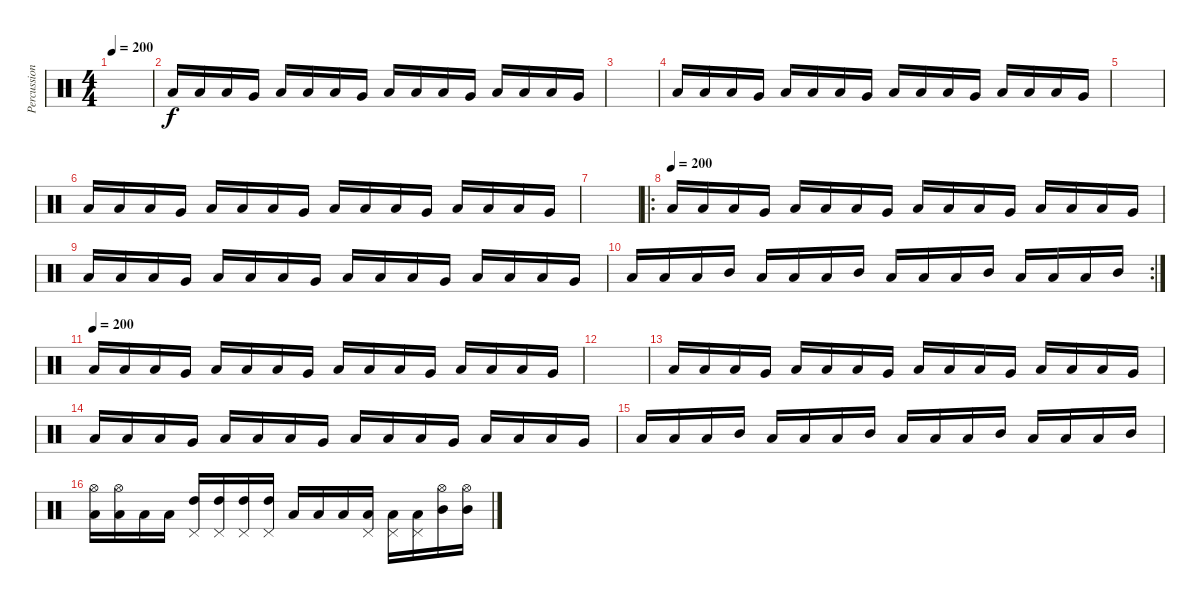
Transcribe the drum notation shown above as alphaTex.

\track ("Percussions" "Percussion") {instrument percussion}
\staff {score}
\articulation defaults
\ts (4 4)
\tempo 200
\clef neutral
\ks c
|
"Low Floor Tom (hit)".16 "Low Floor Tom (hit)".16 "Low Floor Tom (hit)".16 "Very Low Tom (hit)".16 "Low Floor Tom (hit)".16 "Low Floor Tom (hit)".16 "Low Floor Tom (hit)".16 "Very Low Tom (hit)".16 "Low Floor Tom (hit)".16 "Low Floor Tom (hit)".16 "Low Floor Tom (hit)".16 "Very Low Tom (hit)".16 "Low Floor Tom (hit)".16 "Low Floor Tom (hit)".16 "Low Floor Tom (hit)".16 "Very Low Tom (hit)".16 |
|
"Low Floor Tom (hit)".16 "Low Floor Tom (hit)".16 "Low Floor Tom (hit)".16 "Very Low Tom (hit)".16 "Low Floor Tom (hit)".16 "Low Floor Tom (hit)".16 "Low Floor Tom (hit)".16 "Very Low Tom (hit)".16 "Low Floor Tom (hit)".16 "Low Floor Tom (hit)".16 "Low Floor Tom (hit)".16 "Very Low Tom (hit)".16 "Low Floor Tom (hit)".16 "Low Floor Tom (hit)".16 "Low Floor Tom (hit)".16 "Very Low Tom (hit)".16 |
|
"Low Floor Tom (hit)".16 "Low Floor Tom (hit)".16 "Low Floor Tom (hit)".16 "Very Low Tom (hit)".16 "Low Floor Tom (hit)".16 "Low Floor Tom (hit)".16 "Low Floor Tom (hit)".16 "Very Low Tom (hit)".16 "Low Floor Tom (hit)".16 "Low Floor Tom (hit)".16 "Low Floor Tom (hit)".16 "Very Low Tom (hit)".16 "Low Floor Tom (hit)".16 "Low Floor Tom (hit)".16 "Low Floor Tom (hit)".16 "Very Low Tom (hit)".16 |
|
\ro
\tempo (200)
"Low Floor Tom (hit)".16 "Low Floor Tom (hit)".16 "Low Floor Tom (hit)".16 "Very Low Tom (hit)".16 "Low Floor Tom (hit)".16 "Low Floor Tom (hit)".16 "Low Floor Tom (hit)".16 "Very Low Tom (hit)".16 "Low Floor Tom (hit)".16 "Low Floor Tom (hit)".16 "Low Floor Tom (hit)".16 "Very Low Tom (hit)".16 "Low Floor Tom (hit)".16 "Low Floor Tom (hit)".16 "Low Floor Tom (hit)".16 "Very Low Tom (hit)".16 |
"Low Floor Tom (hit)".16 "Low Floor Tom (hit)".16 "Low Floor Tom (hit)".16 "Very Low Tom (hit)".16 "Low Floor Tom (hit)".16 "Low Floor Tom (hit)".16 "Low Floor Tom (hit)".16 "Very Low Tom (hit)".16 "Low Floor Tom (hit)".16 "Low Floor Tom (hit)".16 "Low Floor Tom (hit)".16 "Very Low Tom (hit)".16 "Low Floor Tom (hit)".16 "Low Floor Tom (hit)".16 "Low Floor Tom (hit)".16 "Very Low Tom (hit)".16 |
\rc 2 "Low Tom (hit)".16 "Low Tom (hit)".16 "Low Tom (hit)".16 "Mid Tom (hit)".16 "Low Tom (hit)".16 "Low Tom (hit)".16 "Low Tom (hit)".16 "Mid Tom (hit)".16 "Low Tom (hit)".16 "Low Tom (hit)".16 "Low Tom (hit)".16 "Mid Tom (hit)".16 "Low Tom (hit)".16 "Low Tom (hit)".16 "Low Tom (hit)".16 "Mid Tom (hit)".16
|
\tempo (200)
"Low Floor Tom (hit)".16 "Low Floor Tom (hit)".16 "Low Floor Tom (hit)".16 "Very Low Tom (hit)".16 "Low Floor Tom (hit)".16 "Low Floor Tom (hit)".16 "Low Floor Tom (hit)".16 "Very Low Tom (hit)".16 "Low Floor Tom (hit)".16 "Low Floor Tom (hit)".16 "Low Floor Tom (hit)".16 "Very Low Tom (hit)".16 "Low Floor Tom (hit)".16 "Low Floor Tom (hit)".16 "Low Floor Tom (hit)".16 "Very Low Tom (hit)".16 |
|
"Low Floor Tom (hit)".16 "Low Floor Tom (hit)".16 "Low Floor Tom (hit)".16 "Very Low Tom (hit)".16 "Low Floor Tom (hit)".16 "Low Floor Tom (hit)".16 "Low Floor Tom (hit)".16 "Very Low Tom (hit)".16 "Low Floor Tom (hit)".16 "Low Floor Tom (hit)".16 "Low Floor Tom (hit)".16 "Very Low Tom (hit)".16 "Low Floor Tom (hit)".16 "Low Floor Tom (hit)".16 "Low Floor Tom (hit)".16 "Very Low Tom (hit)".16 |
"Low Floor Tom (hit)".16 "Low Floor Tom (hit)".16 "Low Floor Tom (hit)".16 "Very Low Tom (hit)".16 "Low Floor Tom (hit)".16 "Low Floor Tom (hit)".16 "Low Floor Tom (hit)".16 "Very Low Tom (hit)".16 "Low Floor Tom (hit)".16 "Low Floor Tom (hit)".16 "Low Floor Tom (hit)".16 "Very Low Tom (hit)".16 "Low Floor Tom (hit)".16 "Low Floor Tom (hit)".16 "Low Floor Tom (hit)".16 "Very Low Tom (hit)".16 |
"Low Tom (hit)".16 "Low Tom (hit)".16 "Low Tom (hit)".16 "Mid Tom (hit)".16 "Low Tom (hit)".16 "Low Tom (hit)".16 "Low Tom (hit)".16 "Mid Tom (hit)".16 "Low Tom (hit)".16 "Low Tom (hit)".16 "Low Tom (hit)".16 "Mid Tom (hit)".16 "Low Tom (hit)".16 "Low Tom (hit)".16 "Low Tom (hit)".16 "Mid Tom (hit)".16 |
("Low Tom (hit)" "Hi-Hat (open)").16 ("Low Tom (hit)" "Hi-Hat (open)").16 "Low Tom (hit)".16 "Low Tom (hit)".16 ("High Tom (hit)" "Pedal Hi-Hat (hit)").16 ("High Tom (hit)" "Pedal Hi-Hat (hit)").16 ("High Tom (hit)" "Pedal Hi-Hat (hit)").16 ("High Tom (hit)" "Pedal Hi-Hat (hit)").16 "Low Tom (hit)".16 "Low Tom (hit)".16 "Low Tom (hit)".16 ("Low Tom (hit)" "Pedal Hi-Hat (hit)").16 ("Low Tom (hit)" "Pedal Hi-Hat (hit)").16 ("Low Tom (hit)" "Pedal Hi-Hat (hit)").16 ("Mid Tom (hit)" "Hi-Hat (open)").16 ("Mid Tom (hit)" "Hi-Hat (open)").16
